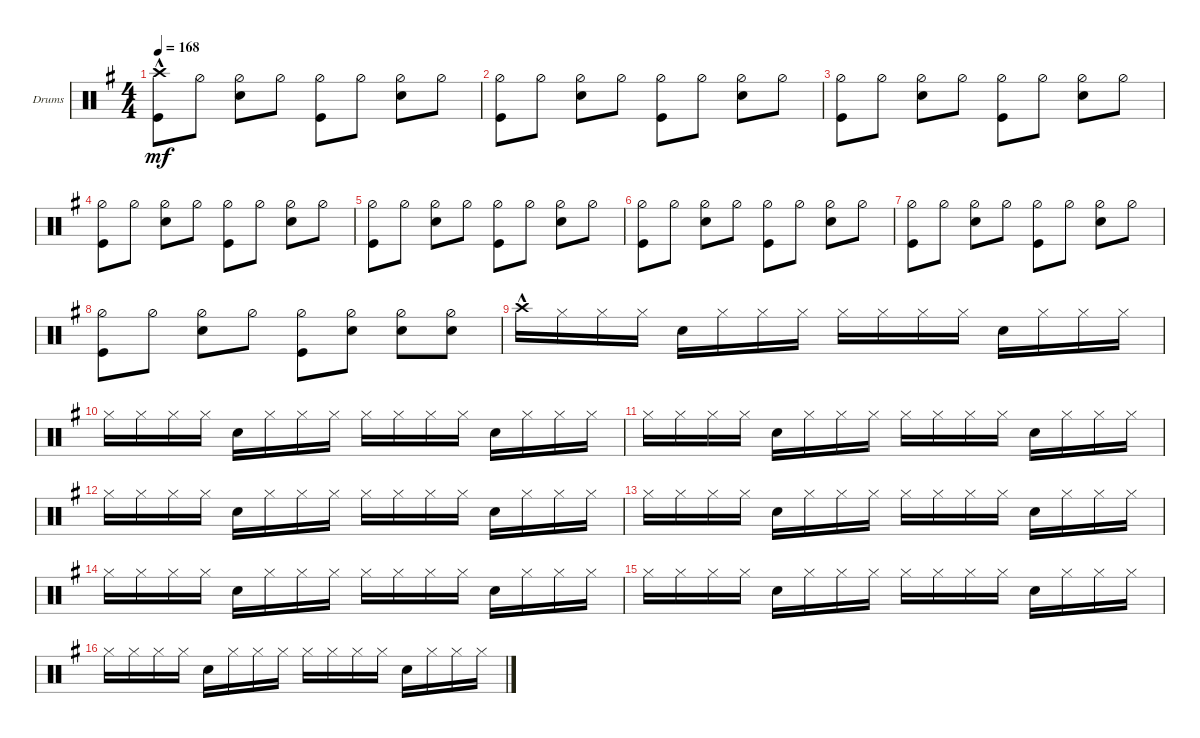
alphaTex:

\defaultSystemsLayout 4
\bracketExtendMode groupsimilarinstruments
\firstSystemTrackNameOrientation horizontal
\otherSystemsTrackNameOrientation horizontal
\track ("Drumkit" "Drums") {instrument percussion}
\staff {score}
\articulation defaults
\ts (4 4)
\tempo 168
\clef neutral
\ks eminor
("Kick (hit)" "Crash high (hit)"{hac}).8{dy mf} "Hi-Hat (half)".8 ("Hi-Hat (half)" "Snare (hit) 2").8 "Hi-Hat (half)".8 ("Hi-Hat (half)" "Kick (hit)").8 "Hi-Hat (half)".8 ("Hi-Hat (half)" "Snare (hit) 2").8 "Hi-Hat (half)".8 |
("Hi-Hat (half)" "Kick (hit)").8 "Hi-Hat (half)".8 ("Hi-Hat (half)" "Snare (hit) 2").8 "Hi-Hat (half)".8 ("Hi-Hat (half)" "Kick (hit)").8 "Hi-Hat (half)".8 ("Hi-Hat (half)" "Snare (hit) 2").8 "Hi-Hat (half)".8 |
("Hi-Hat (half)" "Kick (hit)").8 "Hi-Hat (half)".8 ("Hi-Hat (half)" "Snare (hit) 2").8 "Hi-Hat (half)".8 ("Hi-Hat (half)" "Kick (hit)").8 "Hi-Hat (half)".8 ("Hi-Hat (half)" "Snare (hit) 2").8 "Hi-Hat (half)".8 |
("Hi-Hat (half)" "Kick (hit)").8 "Hi-Hat (half)".8 ("Hi-Hat (half)" "Snare (hit) 2").8 "Hi-Hat (half)".8 ("Hi-Hat (half)" "Kick (hit)").8 "Hi-Hat (half)".8 ("Hi-Hat (half)" "Snare (hit) 2").8 "Hi-Hat (half)".8 |
("Hi-Hat (half)" "Kick (hit)").8 "Hi-Hat (half)".8 ("Hi-Hat (half)" "Snare (hit) 2").8 "Hi-Hat (half)".8 ("Hi-Hat (half)" "Kick (hit)").8 "Hi-Hat (half)".8 ("Hi-Hat (half)" "Snare (hit) 2").8 "Hi-Hat (half)".8 |
("Hi-Hat (half)" "Kick (hit)").8 "Hi-Hat (half)".8 ("Hi-Hat (half)" "Snare (hit) 2").8 "Hi-Hat (half)".8 ("Hi-Hat (half)" "Kick (hit)").8 "Hi-Hat (half)".8 ("Hi-Hat (half)" "Snare (hit) 2").8 "Hi-Hat (half)".8 |
("Hi-Hat (half)" "Kick (hit)").8 "Hi-Hat (half)".8 ("Hi-Hat (half)" "Snare (hit) 2").8 "Hi-Hat (half)".8 ("Hi-Hat (half)" "Kick (hit)").8 "Hi-Hat (half)".8 ("Hi-Hat (half)" "Snare (hit) 2").8 "Hi-Hat (half)".8 |
("Hi-Hat (half)" "Kick (hit)").8 "Hi-Hat (half)".8 ("Hi-Hat (half)" "Snare (hit) 2").8 "Hi-Hat (half)".8 ("Hi-Hat (half)" "Kick (hit)").8 ("Hi-Hat (half)" "Snare (hit) 2").8 ("Hi-Hat (half)" "Snare (hit) 2").8 ("Hi-Hat (half)" "Snare (hit) 2").8 |
\scale
0.325926 "Crash high (hit)"{hac}.16 "Hi-Hat (closed)".16 "Hi-Hat (closed)".16 "Hi-Hat (closed)".16 "Snare (hit) 2".16 "Hi-Hat (closed)".16 "Hi-Hat (closed)".16 "Hi-Hat (closed)".16 "Hi-Hat (closed)".16 "Hi-Hat (closed)".16 "Hi-Hat (closed)".16 "Hi-Hat (closed)".16 "Snare (hit) 2".16 "Hi-Hat (closed)".16 "Hi-Hat (closed)".16 "Hi-Hat (closed)".16 |
\scale
0.396821 "Hi-Hat (closed)".16 "Hi-Hat (closed)".16 "Hi-Hat (closed)".16 "Hi-Hat (closed)".16 "Snare (hit) 2".16 "Hi-Hat (closed)".16 "Hi-Hat (closed)".16 "Hi-Hat (closed)".16 "Hi-Hat (closed)".16 "Hi-Hat (closed)".16 "Hi-Hat (closed)".16 "Hi-Hat (closed)".16 "Snare (hit) 2".16 "Hi-Hat (closed)".16 "Hi-Hat (closed)".16 "Hi-Hat (closed)".16 |
\scale
0.185363 "Hi-Hat (closed)".16 "Hi-Hat (closed)".16 "Hi-Hat (closed)".16 "Hi-Hat (closed)".16 "Snare (hit) 2".16 "Hi-Hat (closed)".16 "Hi-Hat (closed)".16 "Hi-Hat (closed)".16 "Hi-Hat (closed)".16 "Hi-Hat (closed)".16 "Hi-Hat (closed)".16 "Hi-Hat (closed)".16 "Snare (hit) 2".16 "Hi-Hat (closed)".16 "Hi-Hat (closed)".16 "Hi-Hat (closed)".16 |
\scale
0.0918519 "Hi-Hat (closed)".16 "Hi-Hat (closed)".16 "Hi-Hat (closed)".16 "Hi-Hat (closed)".16 "Snare (hit) 2".16 "Hi-Hat (closed)".16 "Hi-Hat (closed)".16 "Hi-Hat (closed)".16 "Hi-Hat (closed)".16 "Hi-Hat (closed)".16 "Hi-Hat (closed)".16 "Hi-Hat (closed)".16 "Snare (hit) 2".16 "Hi-Hat (closed)".16 "Hi-Hat (closed)".16 "Hi-Hat (closed)".16 |
"Hi-Hat (closed)".16 "Hi-Hat (closed)".16 "Hi-Hat (closed)".16 "Hi-Hat (closed)".16 "Snare (hit) 2".16 "Hi-Hat (closed)".16 "Hi-Hat (closed)".16 "Hi-Hat (closed)".16 "Hi-Hat (closed)".16 "Hi-Hat (closed)".16 "Hi-Hat (closed)".16 "Hi-Hat (closed)".16 "Snare (hit) 2".16 "Hi-Hat (closed)".16 "Hi-Hat (closed)".16 "Hi-Hat (closed)".16 |
"Hi-Hat (closed)".16 "Hi-Hat (closed)".16 "Hi-Hat (closed)".16 "Hi-Hat (closed)".16 "Snare (hit) 2".16 "Hi-Hat (closed)".16 "Hi-Hat (closed)".16 "Hi-Hat (closed)".16 "Hi-Hat (closed)".16 "Hi-Hat (closed)".16 "Hi-Hat (closed)".16 "Hi-Hat (closed)".16 "Snare (hit) 2".16 "Hi-Hat (closed)".16 "Hi-Hat (closed)".16 "Hi-Hat (closed)".16 |
"Hi-Hat (closed)".16 "Hi-Hat (closed)".16 "Hi-Hat (closed)".16 "Hi-Hat (closed)".16 "Snare (hit) 2".16 "Hi-Hat (closed)".16 "Hi-Hat (closed)".16 "Hi-Hat (closed)".16 "Hi-Hat (closed)".16 "Hi-Hat (closed)".16 "Hi-Hat (closed)".16 "Hi-Hat (closed)".16 "Snare (hit) 2".16 "Hi-Hat (closed)".16 "Hi-Hat (closed)".16 "Hi-Hat (closed)".16 |
"Hi-Hat (closed)".16 "Hi-Hat (closed)".16 "Hi-Hat (closed)".16 "Hi-Hat (closed)".16 "Snare (hit) 2".16 "Hi-Hat (closed)".16 "Hi-Hat (closed)".16 "Hi-Hat (closed)".16 "Hi-Hat (closed)".16 "Hi-Hat (closed)".16 "Hi-Hat (closed)".16 "Hi-Hat (closed)".16 "Snare (hit) 2".16 "Hi-Hat (closed)".16 "Hi-Hat (closed)".16 "Hi-Hat (closed)".16
